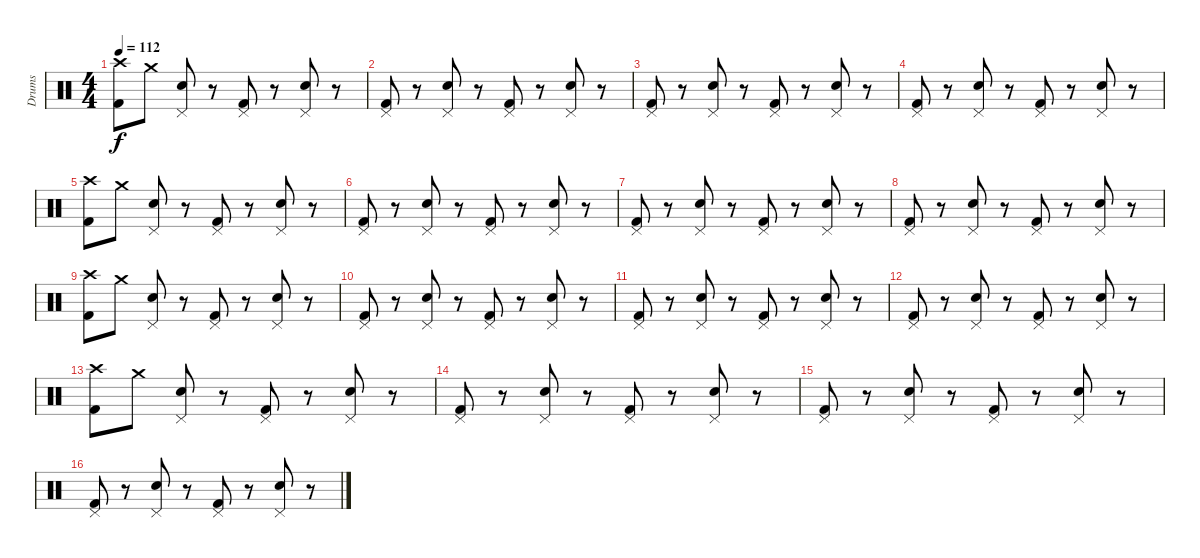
\track ("Drums" "Drums") {instrument percussion}
\staff {score}
\articulation defaults
\ts (4 4)
\tempo 112
\clef neutral
\ks c
("Crash high (hit)" "Kick (hit) 2").8{dy f} "Crash medium (hit)".8 ("Pedal Hi-Hat (hit)" "Snare (hit) 2").8 r.8 ("Pedal Hi-Hat (hit)" "Kick (hit) 2").8 r.8 ("Pedal Hi-Hat (hit)" "Snare (hit) 2").8 r.8 |
("Pedal Hi-Hat (hit)" "Kick (hit) 2").8 r.8 ("Pedal Hi-Hat (hit)" "Snare (hit) 2").8 r.8 ("Pedal Hi-Hat (hit)" "Kick (hit) 2").8 r.8 ("Pedal Hi-Hat (hit)" "Snare (hit) 2").8 r.8 |
("Pedal Hi-Hat (hit)" "Kick (hit) 2").8 r.8 ("Pedal Hi-Hat (hit)" "Snare (hit) 2").8 r.8 ("Pedal Hi-Hat (hit)" "Kick (hit) 2").8 r.8 ("Pedal Hi-Hat (hit)" "Snare (hit) 2").8 r.8 |
("Pedal Hi-Hat (hit)" "Kick (hit) 2").8 r.8 ("Pedal Hi-Hat (hit)" "Snare (hit) 2").8 r.8 ("Pedal Hi-Hat (hit)" "Kick (hit) 2").8 r.8 ("Pedal Hi-Hat (hit)" "Snare (hit) 2").8 r.8 |
("Crash high (hit)" "Kick (hit) 2").8 "Crash medium (hit)".8 ("Pedal Hi-Hat (hit)" "Snare (hit) 2").8 r.8 ("Pedal Hi-Hat (hit)" "Kick (hit) 2").8 r.8 ("Pedal Hi-Hat (hit)" "Snare (hit) 2").8 r.8 |
("Pedal Hi-Hat (hit)" "Kick (hit) 2").8 r.8 ("Pedal Hi-Hat (hit)" "Snare (hit) 2").8 r.8 ("Pedal Hi-Hat (hit)" "Kick (hit) 2").8 r.8 ("Pedal Hi-Hat (hit)" "Snare (hit) 2").8 r.8 |
("Pedal Hi-Hat (hit)" "Kick (hit) 2").8 r.8 ("Pedal Hi-Hat (hit)" "Snare (hit) 2").8 r.8 ("Pedal Hi-Hat (hit)" "Kick (hit) 2").8 r.8 ("Pedal Hi-Hat (hit)" "Snare (hit) 2").8 r.8 |
("Pedal Hi-Hat (hit)" "Kick (hit) 2").8 r.8 ("Pedal Hi-Hat (hit)" "Snare (hit) 2").8 r.8 ("Pedal Hi-Hat (hit)" "Kick (hit) 2").8 r.8 ("Pedal Hi-Hat (hit)" "Snare (hit) 2").8 r.8 |
("Crash high (hit)" "Kick (hit) 2").8 "Crash medium (hit)".8 ("Pedal Hi-Hat (hit)" "Snare (hit) 2").8 r.8 ("Pedal Hi-Hat (hit)" "Kick (hit) 2").8 r.8 ("Pedal Hi-Hat (hit)" "Snare (hit) 2").8 r.8 |
("Pedal Hi-Hat (hit)" "Kick (hit) 2").8 r.8 ("Pedal Hi-Hat (hit)" "Snare (hit) 2").8 r.8 ("Pedal Hi-Hat (hit)" "Kick (hit) 2").8 r.8 ("Pedal Hi-Hat (hit)" "Snare (hit) 2").8 r.8 |
("Pedal Hi-Hat (hit)" "Kick (hit) 2").8 r.8 ("Pedal Hi-Hat (hit)" "Snare (hit) 2").8 r.8 ("Pedal Hi-Hat (hit)" "Kick (hit) 2").8 r.8 ("Pedal Hi-Hat (hit)" "Snare (hit) 2").8 r.8 |
("Pedal Hi-Hat (hit)" "Kick (hit) 2").8 r.8 ("Pedal Hi-Hat (hit)" "Snare (hit) 2").8 r.8 ("Pedal Hi-Hat (hit)" "Kick (hit) 2").8 r.8 ("Pedal Hi-Hat (hit)" "Snare (hit) 2").8 r.8 |
("Crash high (hit)" "Kick (hit) 2").8 "Crash medium (hit)".8 ("Pedal Hi-Hat (hit)" "Snare (hit) 2").8 r.8 ("Pedal Hi-Hat (hit)" "Kick (hit) 2").8 r.8 ("Pedal Hi-Hat (hit)" "Snare (hit) 2").8 r.8 |
("Pedal Hi-Hat (hit)" "Kick (hit) 2").8 r.8 ("Pedal Hi-Hat (hit)" "Snare (hit) 2").8 r.8 ("Pedal Hi-Hat (hit)" "Kick (hit) 2").8 r.8 ("Pedal Hi-Hat (hit)" "Snare (hit) 2").8 r.8 |
("Pedal Hi-Hat (hit)" "Kick (hit) 2").8 r.8 ("Pedal Hi-Hat (hit)" "Snare (hit) 2").8 r.8 ("Pedal Hi-Hat (hit)" "Kick (hit) 2").8 r.8 ("Pedal Hi-Hat (hit)" "Snare (hit) 2").8 r.8 |
("Pedal Hi-Hat (hit)" "Kick (hit) 2").8 r.8 ("Pedal Hi-Hat (hit)" "Snare (hit) 2").8 r.8 ("Pedal Hi-Hat (hit)" "Kick (hit) 2").8 r.8 ("Pedal Hi-Hat (hit)" "Snare (hit) 2").8 r.8
